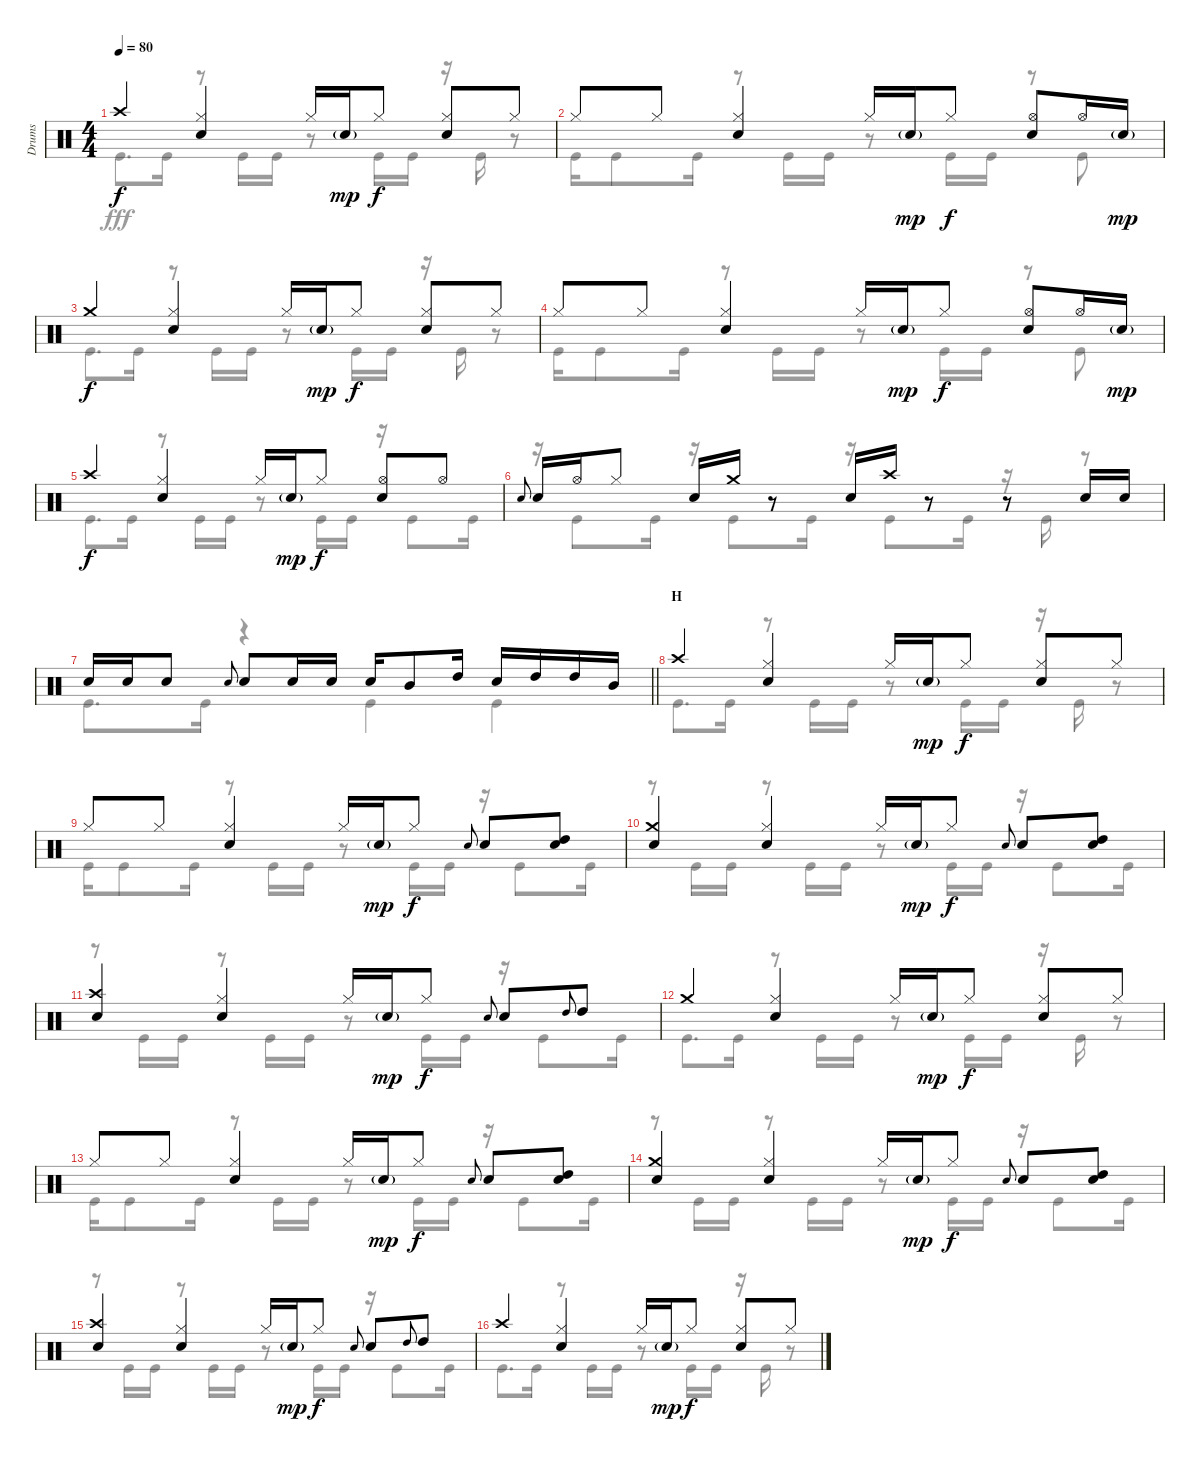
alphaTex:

\track ("Drums" "Drums") {instrument percussion}
\staff {score}
\articulation defaults
\voice
\ts (4 4)
\tempo 80
\clef neutral
\ks c "Crash high (hit)".4{dy f}
("Hi-Hat (closed)" "Snare (hit) 2").4 "Hi-Hat (closed)".16 "Snare (hit) 2"{g}.16{dy mp} "Hi-Hat (closed)".8{dy f} ("Hi-Hat (closed)" "Snare (hit) 2").8 "Hi-Hat (closed)".8 |
"Hi-Hat (closed)".8 "Hi-Hat (closed)".8 ("Hi-Hat (closed)" "Snare (hit) 2").4 "Hi-Hat (closed)".16 "Snare (hit) 2"{g}.16{dy mp} "Hi-Hat (closed)".8{dy f} ("Hi-Hat (open)" "Snare (hit) 2").8 "Hi-Hat (open)".16 "Snare (hit) 2"{g}.16{dy mp} |
"Crash medium (hit)".4{dy f} ("Hi-Hat (closed)" "Snare (hit) 2").4 "Hi-Hat (closed)".16 "Snare (hit) 2"{g}.16{dy mp} "Hi-Hat (closed)".8{dy f} ("Hi-Hat (closed)" "Snare (hit) 2").8 "Hi-Hat (closed)".8 |
"Hi-Hat (closed)".8 "Hi-Hat (closed)".8 ("Hi-Hat (closed)" "Snare (hit) 2").4 "Hi-Hat (closed)".16 "Snare (hit) 2"{g}.16{dy mp} "Hi-Hat (closed)".8{dy f} ("Hi-Hat (open)" "Snare (hit) 2").8 "Hi-Hat (open)".16 "Snare (hit) 2"{g}.16{dy mp} |
"Crash high (hit)".4{dy f} ("Hi-Hat (closed)" "Snare (hit) 2").4 "Hi-Hat (closed)".16 "Snare (hit) 2"{g}.16{dy mp} "Hi-Hat (closed)".8{dy f} ("Hi-Hat (open)" "Snare (hit) 2").8 "Hi-Hat (open)".8 |
"Snare (hit) 2".8{gr onbeat} "Snare (hit) 2".16 "Hi-Hat (open)".16 "Hi-Hat (closed)".8 "Snare (hit) 2".16 "Crash medium (hit)".16 r.8 "Snare (hit) 2".16 "Crash high (hit)".16 r.8 r.8 "Snare (hit) 2".16 "Snare (hit) 2".16 |
\barLineRight lightlight "Snare (hit) 2".16 "Snare (hit) 2".16 "Snare (hit) 2".8 "Snare (hit) 2".8{gr onbeat} "Snare (hit) 2".8 "Snare (hit) 2".16 "Snare (hit) 2".16 "Snare (hit) 2".16 "Mid Tom (hit)".8 "High Tom (hit)".16 "Snare (hit) 2".16 "High Tom (hit)".16 "High Tom (hit)".16 "Mid Tom (hit)".16
|
\section ("" "H")
"Crash high (hit)".4 ("Hi-Hat (closed)" "Snare (hit) 2").4 "Hi-Hat (closed)".16 "Snare (hit) 2"{g}.16{dy mp} "Hi-Hat (closed)".8{dy f} ("Hi-Hat (closed)" "Snare (hit) 2").8 "Hi-Hat (closed)".8 |
"Hi-Hat (closed)".8 "Hi-Hat (closed)".8 ("Hi-Hat (closed)" "Snare (hit) 2").4 "Hi-Hat (closed)".16 "Snare (hit) 2"{g}.16{dy mp} "Hi-Hat (closed)".8{dy f} "Snare (hit) 2".8{gr onbeat} "Snare (hit) 2".8 ("High Tom (hit)" "Snare (hit) 2").8 |
("Crash medium (hit)" "Snare (hit) 2").4 ("Hi-Hat (closed)" "Snare (hit) 2").4 "Hi-Hat (closed)".16 "Snare (hit) 2"{g}.16{dy mp} "Hi-Hat (closed)".8{dy f} "Snare (hit) 2".8{gr onbeat} "Snare (hit) 2".8 ("High Tom (hit)" "Snare (hit) 2").8 |
("Crash high (hit)" "Snare (hit) 2").4 ("Hi-Hat (closed)" "Snare (hit) 2").4 "Hi-Hat (closed)".16 "Snare (hit) 2"{g}.16{dy mp} "Hi-Hat (closed)".8{dy f} "Snare (hit) 2".8{gr onbeat} "Snare (hit) 2".8 "High Tom (hit)".8{gr onbeat} "High Tom (hit)".8 |
"Crash medium (hit)".4 ("Hi-Hat (closed)" "Snare (hit) 2").4 "Hi-Hat (closed)".16 "Snare (hit) 2"{g}.16{dy mp} "Hi-Hat (closed)".8{dy f} ("Hi-Hat (closed)" "Snare (hit) 2").8 "Hi-Hat (closed)".8 |
"Hi-Hat (closed)".8 "Hi-Hat (closed)".8 ("Hi-Hat (closed)" "Snare (hit) 2").4 "Hi-Hat (closed)".16 "Snare (hit) 2"{g}.16{dy mp} "Hi-Hat (closed)".8{dy f} "Snare (hit) 2".8{gr onbeat} "Snare (hit) 2".8 ("High Tom (hit)" "Snare (hit) 2").8 |
("Crash medium (hit)" "Snare (hit) 2").4 ("Hi-Hat (closed)" "Snare (hit) 2").4 "Hi-Hat (closed)".16 "Snare (hit) 2"{g}.16{dy mp} "Hi-Hat (closed)".8{dy f} "Snare (hit) 2".8{gr onbeat} "Snare (hit) 2".8 ("High Tom (hit)" "Snare (hit) 2").8 |
("Crash high (hit)" "Snare (hit) 2").4 ("Hi-Hat (closed)" "Snare (hit) 2").4 "Hi-Hat (closed)".16 "Snare (hit) 2"{g}.16{dy mp} "Hi-Hat (closed)".8{dy f} "Snare (hit) 2".8{gr onbeat} "Snare (hit) 2".8 "High Tom (hit)".8{gr onbeat} "High Tom (hit)".8 |
"Crash high (hit)".4 ("Hi-Hat (closed)" "Snare (hit) 2").4 "Hi-Hat (closed)".16 "Snare (hit) 2"{g}.16{dy mp} "Hi-Hat (closed)".8{dy f} ("Hi-Hat (closed)" "Snare (hit) 2").8 "Hi-Hat (closed)".8
\voice
\clef neutral
\ottava regular
\simile none
\ks c "Kick (hit)".8{d dy fff} "Kick (hit)".16
r.8 "Kick (hit)".16 "Kick (hit)".16 r.8 "Kick (hit)".16 "Kick (hit)".16 r.16 "Kick (hit)".16 r.8 |
"Kick (hit)".16 "Kick (hit)".8 "Kick (hit)".16 r.8 "Kick (hit)".16 "Kick (hit)".16 r.8 "Kick (hit)".16 "Kick (hit)".16 r.8 "Kick (hit)".8 |
"Kick (hit)".8{d} "Kick (hit)".16 r.8 "Kick (hit)".16 "Kick (hit)".16 r.8 "Kick (hit)".16 "Kick (hit)".16 r.16 "Kick (hit)".16 r.8 |
"Kick (hit)".16 "Kick (hit)".8 "Kick (hit)".16 r.8 "Kick (hit)".16 "Kick (hit)".16 r.8 "Kick (hit)".16 "Kick (hit)".16 r.8 "Kick (hit)".8 |
"Kick (hit)".8{d} "Kick (hit)".16 r.8 "Kick (hit)".16 "Kick (hit)".16 r.8 "Kick (hit)".16 "Kick (hit)".16 r.16 "Kick (hit)".8 "Kick (hit)".16 |
r.16 "Kick (hit)".8 "Kick (hit)".16 r.16 "Kick (hit)".8 "Kick (hit)".16 r.16 "Kick (hit)".8 "Kick (hit)".16 r.16 "Kick (hit)".16 r.8 |
\barLineRight lightlight "Kick (hit)".8{d} "Kick (hit)".16
r.4 "Kick (hit)".4 "Kick (hit)".4 |
"Kick (hit)".8{d} "Kick (hit)".16 r.8 "Kick (hit)".16 "Kick (hit)".16 r.8 "Kick (hit)".16 "Kick (hit)".16 r.16 "Kick (hit)".16 r.8 |
"Kick (hit)".16 "Kick (hit)".8 "Kick (hit)".16 r.8 "Kick (hit)".16 "Kick (hit)".16 r.8 "Kick (hit)".16 "Kick (hit)".16 r.16 "Kick (hit)".8 "Kick (hit)".16 |
r.8 "Kick (hit)".16 "Kick (hit)".16 r.8 "Kick (hit)".16 "Kick (hit)".16 r.8 "Kick (hit)".16 "Kick (hit)".16 r.16 "Kick (hit)".8 "Kick (hit)".16 |
r.8 "Kick (hit)".16 "Kick (hit)".16 r.8 "Kick (hit)".16 "Kick (hit)".16 r.8 "Kick (hit)".16 "Kick (hit)".16 r.16 "Kick (hit)".8 "Kick (hit)".16 |
"Kick (hit)".8{d} "Kick (hit)".16 r.8 "Kick (hit)".16 "Kick (hit)".16 r.8 "Kick (hit)".16 "Kick (hit)".16 r.16 "Kick (hit)".16 r.8 |
"Kick (hit)".16 "Kick (hit)".8 "Kick (hit)".16 r.8 "Kick (hit)".16 "Kick (hit)".16 r.8 "Kick (hit)".16 "Kick (hit)".16 r.16 "Kick (hit)".8 "Kick (hit)".16 |
r.8 "Kick (hit)".16 "Kick (hit)".16 r.8 "Kick (hit)".16 "Kick (hit)".16 r.8 "Kick (hit)".16 "Kick (hit)".16 r.16 "Kick (hit)".8 "Kick (hit)".16 |
r.8 "Kick (hit)".16 "Kick (hit)".16 r.8 "Kick (hit)".16 "Kick (hit)".16 r.8 "Kick (hit)".16 "Kick (hit)".16 r.16 "Kick (hit)".8 "Kick (hit)".16 |
"Kick (hit)".8{d} "Kick (hit)".16 r.8 "Kick (hit)".16 "Kick (hit)".16 r.8 "Kick (hit)".16 "Kick (hit)".16 r.16 "Kick (hit)".16 r.8
